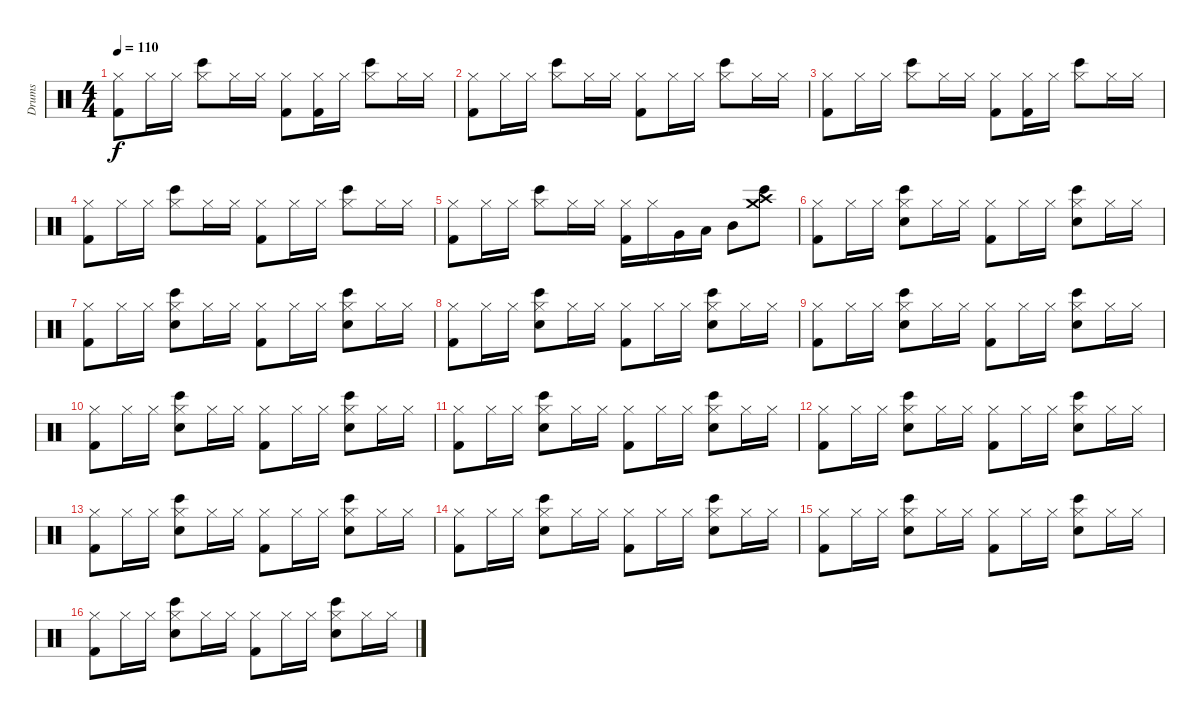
\track ("Drums" "Drums") {instrument percussion}
\staff {score}
\articulation defaults
\ts (4 4)
\tempo 110
\clef neutral
\ks c
("Hi-Hat (closed)" "Kick (hit) 2").8{dy f} "Hi-Hat (closed)".16 "Hi-Hat (closed)".16 ("Hi-Hat (closed)" "Bongo High (hit)").8 "Hi-Hat (closed)".16 "Hi-Hat (closed)".16 ("Hi-Hat (closed)" "Kick (hit) 2").8 ("Hi-Hat (closed)" "Kick (hit) 2").16 "Hi-Hat (closed)".16 ("Hi-Hat (closed)" "Bongo High (hit)").8 "Hi-Hat (closed)".16 "Hi-Hat (closed)".16 |
("Hi-Hat (closed)" "Kick (hit) 2").8 "Hi-Hat (closed)".16 "Hi-Hat (closed)".16 ("Hi-Hat (closed)" "Bongo High (hit)").8 "Hi-Hat (closed)".16 "Hi-Hat (closed)".16 ("Hi-Hat (closed)" "Kick (hit) 2").8 "Hi-Hat (closed)".16 "Hi-Hat (closed)".16 ("Hi-Hat (closed)" "Bongo High (hit)").8 "Hi-Hat (closed)".16 "Hi-Hat (closed)".16 |
("Hi-Hat (closed)" "Kick (hit) 2").8 "Hi-Hat (closed)".16 "Hi-Hat (closed)".16 ("Hi-Hat (closed)" "Bongo High (hit)").8 "Hi-Hat (closed)".16 "Hi-Hat (closed)".16 ("Hi-Hat (closed)" "Kick (hit) 2").8 ("Hi-Hat (closed)" "Kick (hit) 2").16 "Hi-Hat (closed)".16 ("Hi-Hat (closed)" "Bongo High (hit)").8 "Hi-Hat (closed)".16 "Hi-Hat (closed)".16 |
("Hi-Hat (closed)" "Kick (hit) 2").8 "Hi-Hat (closed)".16 "Hi-Hat (closed)".16 ("Hi-Hat (closed)" "Bongo High (hit)").8 "Hi-Hat (closed)".16 "Hi-Hat (closed)".16 ("Hi-Hat (closed)" "Kick (hit) 2").8 "Hi-Hat (closed)".16 "Hi-Hat (closed)".16 ("Hi-Hat (closed)" "Bongo High (hit)").8 "Hi-Hat (closed)".16 "Hi-Hat (closed)".16 |
("Hi-Hat (closed)" "Kick (hit) 2").8 "Hi-Hat (closed)".16 "Hi-Hat (closed)".16 ("Hi-Hat (closed)" "Bongo High (hit)").8 "Hi-Hat (closed)".16 "Hi-Hat (closed)".16 ("Hi-Hat (closed)" "Kick (hit) 2").16 "Hi-Hat (closed)".16 "Very Low Tom (hit)".16 "Low Tom (hit)".16 "Mid Tom (hit)".8 ("Crash medium (hit)" "Bongo High (hit)" "Crash high (hit)").8 |
("Hi-Hat (closed)" "Kick (hit) 2").8 "Hi-Hat (closed)".16 "Hi-Hat (closed)".16 ("Hi-Hat (closed)" "Snare (hit) 2" "Bongo High (hit)").8 "Hi-Hat (closed)".16 "Hi-Hat (closed)".16 ("Hi-Hat (closed)" "Kick (hit) 2").8 "Hi-Hat (closed)".16 "Hi-Hat (closed)".16 ("Hi-Hat (closed)" "Snare (hit) 2" "Bongo High (hit)").8 "Hi-Hat (closed)".16 "Hi-Hat (closed)".16 |
("Hi-Hat (closed)" "Kick (hit) 2").8 "Hi-Hat (closed)".16 "Hi-Hat (closed)".16 ("Hi-Hat (closed)" "Snare (hit) 2" "Bongo High (hit)").8 "Hi-Hat (closed)".16 "Hi-Hat (closed)".16 ("Hi-Hat (closed)" "Kick (hit) 2").8 "Hi-Hat (closed)".16 "Hi-Hat (closed)".16 ("Hi-Hat (closed)" "Snare (hit) 2" "Bongo High (hit)").8 "Hi-Hat (closed)".16 "Hi-Hat (closed)".16 |
("Hi-Hat (closed)" "Kick (hit) 2").8 "Hi-Hat (closed)".16 "Hi-Hat (closed)".16 ("Hi-Hat (closed)" "Snare (hit) 2" "Bongo High (hit)").8 "Hi-Hat (closed)".16 "Hi-Hat (closed)".16 ("Hi-Hat (closed)" "Kick (hit) 2").8 "Hi-Hat (closed)".16 "Hi-Hat (closed)".16 ("Hi-Hat (closed)" "Snare (hit) 2" "Bongo High (hit)").8 "Hi-Hat (closed)".16 "Hi-Hat (closed)".16 |
("Hi-Hat (closed)" "Kick (hit) 2").8 "Hi-Hat (closed)".16 "Hi-Hat (closed)".16 ("Hi-Hat (closed)" "Snare (hit) 2" "Bongo High (hit)").8 "Hi-Hat (closed)".16 "Hi-Hat (closed)".16 ("Hi-Hat (closed)" "Kick (hit) 2").8 "Hi-Hat (closed)".16 "Hi-Hat (closed)".16 ("Hi-Hat (closed)" "Snare (hit) 2" "Bongo High (hit)").8 "Hi-Hat (closed)".16 "Hi-Hat (closed)".16 |
("Hi-Hat (closed)" "Kick (hit) 2").8 "Hi-Hat (closed)".16 "Hi-Hat (closed)".16 ("Hi-Hat (closed)" "Snare (hit) 2" "Bongo High (hit)").8 "Hi-Hat (closed)".16 "Hi-Hat (closed)".16 ("Hi-Hat (closed)" "Kick (hit) 2").8 "Hi-Hat (closed)".16 "Hi-Hat (closed)".16 ("Hi-Hat (closed)" "Snare (hit) 2" "Bongo High (hit)").8 "Hi-Hat (closed)".16 "Hi-Hat (closed)".16 |
("Hi-Hat (closed)" "Kick (hit) 2").8 "Hi-Hat (closed)".16 "Hi-Hat (closed)".16 ("Hi-Hat (closed)" "Snare (hit) 2" "Bongo High (hit)").8 "Hi-Hat (closed)".16 "Hi-Hat (closed)".16 ("Hi-Hat (closed)" "Kick (hit) 2").8 "Hi-Hat (closed)".16 "Hi-Hat (closed)".16 ("Hi-Hat (closed)" "Snare (hit) 2" "Bongo High (hit)").8 "Hi-Hat (closed)".16 "Hi-Hat (closed)".16 |
("Hi-Hat (closed)" "Kick (hit) 2").8 "Hi-Hat (closed)".16 "Hi-Hat (closed)".16 ("Hi-Hat (closed)" "Snare (hit) 2" "Bongo High (hit)").8 "Hi-Hat (closed)".16 "Hi-Hat (closed)".16 ("Hi-Hat (closed)" "Kick (hit) 2").8 "Hi-Hat (closed)".16 "Hi-Hat (closed)".16 ("Hi-Hat (closed)" "Snare (hit) 2" "Bongo High (hit)").8 "Hi-Hat (closed)".16 "Hi-Hat (closed)".16 |
("Hi-Hat (closed)" "Kick (hit) 2").8 "Hi-Hat (closed)".16 "Hi-Hat (closed)".16 ("Hi-Hat (closed)" "Snare (hit) 2" "Bongo High (hit)").8 "Hi-Hat (closed)".16 "Hi-Hat (closed)".16 ("Hi-Hat (closed)" "Kick (hit) 2").8 "Hi-Hat (closed)".16 "Hi-Hat (closed)".16 ("Hi-Hat (closed)" "Snare (hit) 2" "Bongo High (hit)").8 "Hi-Hat (closed)".16 "Hi-Hat (closed)".16 |
("Hi-Hat (closed)" "Kick (hit) 2").8 "Hi-Hat (closed)".16 "Hi-Hat (closed)".16 ("Hi-Hat (closed)" "Snare (hit) 2" "Bongo High (hit)").8 "Hi-Hat (closed)".16 "Hi-Hat (closed)".16 ("Hi-Hat (closed)" "Kick (hit) 2").8 "Hi-Hat (closed)".16 "Hi-Hat (closed)".16 ("Hi-Hat (closed)" "Snare (hit) 2" "Bongo High (hit)").8 "Hi-Hat (closed)".16 "Hi-Hat (closed)".16 |
("Hi-Hat (closed)" "Kick (hit) 2").8 "Hi-Hat (closed)".16 "Hi-Hat (closed)".16 ("Hi-Hat (closed)" "Snare (hit) 2" "Bongo High (hit)").8 "Hi-Hat (closed)".16 "Hi-Hat (closed)".16 ("Hi-Hat (closed)" "Kick (hit) 2").8 "Hi-Hat (closed)".16 "Hi-Hat (closed)".16 ("Hi-Hat (closed)" "Snare (hit) 2" "Bongo High (hit)").8 "Hi-Hat (closed)".16 "Hi-Hat (closed)".16 |
("Hi-Hat (closed)" "Kick (hit) 2").8 "Hi-Hat (closed)".16 "Hi-Hat (closed)".16 ("Hi-Hat (closed)" "Snare (hit) 2" "Bongo High (hit)").8 "Hi-Hat (closed)".16 "Hi-Hat (closed)".16 ("Hi-Hat (closed)" "Kick (hit) 2").8 "Hi-Hat (closed)".16 "Hi-Hat (closed)".16 ("Hi-Hat (closed)" "Snare (hit) 2" "Bongo High (hit)").8 "Hi-Hat (closed)".16 "Hi-Hat (closed)".16
